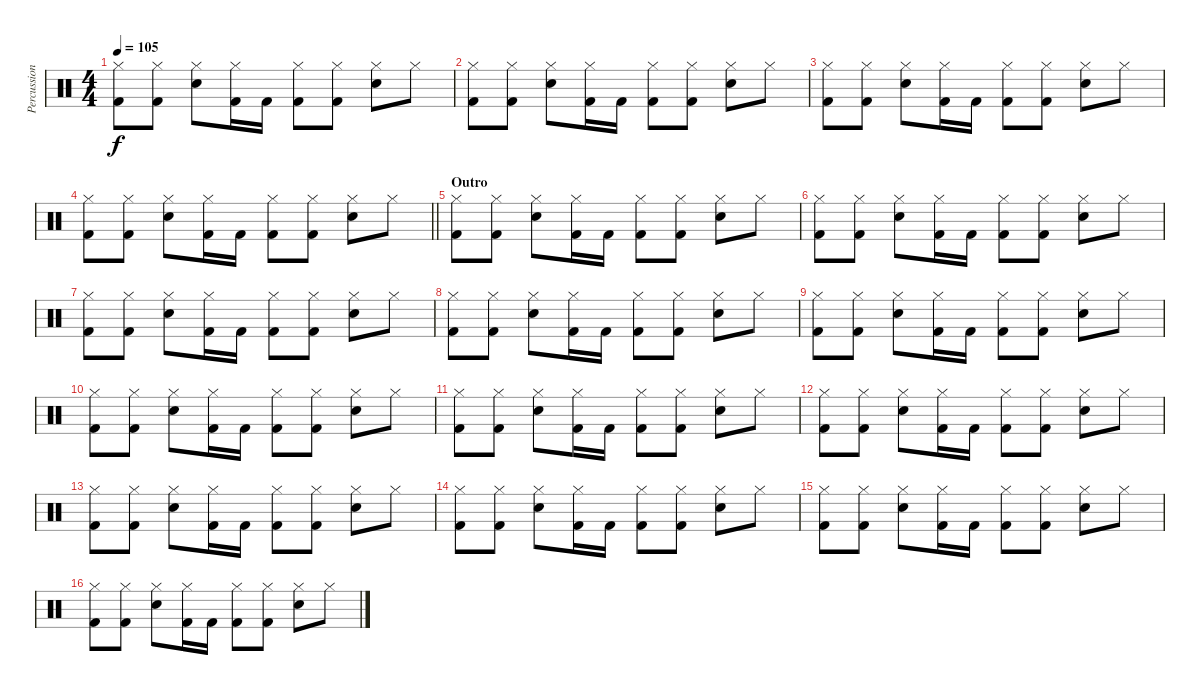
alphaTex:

\track ("Percussion" "Percussion") {instrument percussion}
\staff {score}
\articulation defaults
\ts (4 4)
\tempo 105
\clef neutral
\ks c
("Hi-Hat (closed)" "Kick (hit) 2").8{dy f} ("Hi-Hat (closed)" "Kick (hit) 2").8 ("Hi-Hat (closed)" "Electric Snare (hit)").8 ("Hi-Hat (closed)" "Kick (hit) 2").16 "Kick (hit) 2".16 ("Hi-Hat (closed)" "Kick (hit) 2").8 ("Hi-Hat (closed)" "Kick (hit) 2").8 ("Hi-Hat (closed)" "Electric Snare (hit)").8 "Hi-Hat (closed)".8 |
("Hi-Hat (closed)" "Kick (hit) 2").8 ("Hi-Hat (closed)" "Kick (hit) 2").8 ("Hi-Hat (closed)" "Electric Snare (hit)").8 ("Hi-Hat (closed)" "Kick (hit) 2").16 "Kick (hit) 2".16 ("Hi-Hat (closed)" "Kick (hit) 2").8 ("Hi-Hat (closed)" "Kick (hit) 2").8 ("Hi-Hat (closed)" "Electric Snare (hit)").8 "Hi-Hat (closed)".8 |
("Hi-Hat (closed)" "Kick (hit) 2").8 ("Hi-Hat (closed)" "Kick (hit) 2").8 ("Hi-Hat (closed)" "Electric Snare (hit)").8 ("Hi-Hat (closed)" "Kick (hit) 2").16 "Kick (hit) 2".16 ("Hi-Hat (closed)" "Kick (hit) 2").8 ("Hi-Hat (closed)" "Kick (hit) 2").8 ("Hi-Hat (closed)" "Electric Snare (hit)").8 "Hi-Hat (closed)".8 |
\barLineRight lightlight
("Hi-Hat (closed)" "Kick (hit) 2").8 ("Hi-Hat (closed)" "Kick (hit) 2").8 ("Hi-Hat (closed)" "Electric Snare (hit)").8 ("Hi-Hat (closed)" "Kick (hit) 2").16 "Kick (hit) 2".16 ("Hi-Hat (closed)" "Kick (hit) 2").8 ("Hi-Hat (closed)" "Kick (hit) 2").8 ("Hi-Hat (closed)" "Electric Snare (hit)").8 "Hi-Hat (closed)".8 |
\section ("" "Outro")
("Hi-Hat (closed)" "Kick (hit) 2").8 ("Hi-Hat (closed)" "Kick (hit) 2").8 ("Hi-Hat (closed)" "Electric Snare (hit)").8 ("Hi-Hat (closed)" "Kick (hit) 2").16 "Kick (hit) 2".16 ("Hi-Hat (closed)" "Kick (hit) 2").8 ("Hi-Hat (closed)" "Kick (hit) 2").8 ("Hi-Hat (closed)" "Electric Snare (hit)").8 "Hi-Hat (closed)".8 |
("Hi-Hat (closed)" "Kick (hit) 2").8 ("Hi-Hat (closed)" "Kick (hit) 2").8 ("Hi-Hat (closed)" "Electric Snare (hit)").8 ("Hi-Hat (closed)" "Kick (hit) 2").16 "Kick (hit) 2".16 ("Hi-Hat (closed)" "Kick (hit) 2").8 ("Hi-Hat (closed)" "Kick (hit) 2").8 ("Hi-Hat (closed)" "Electric Snare (hit)").8 "Hi-Hat (closed)".8 |
("Hi-Hat (closed)" "Kick (hit) 2").8 ("Hi-Hat (closed)" "Kick (hit) 2").8 ("Hi-Hat (closed)" "Electric Snare (hit)").8 ("Hi-Hat (closed)" "Kick (hit) 2").16 "Kick (hit) 2".16 ("Hi-Hat (closed)" "Kick (hit) 2").8 ("Hi-Hat (closed)" "Kick (hit) 2").8 ("Hi-Hat (closed)" "Electric Snare (hit)").8 "Hi-Hat (closed)".8 |
("Hi-Hat (closed)" "Kick (hit) 2").8 ("Hi-Hat (closed)" "Kick (hit) 2").8 ("Hi-Hat (closed)" "Electric Snare (hit)").8 ("Hi-Hat (closed)" "Kick (hit) 2").16 "Kick (hit) 2".16 ("Hi-Hat (closed)" "Kick (hit) 2").8 ("Hi-Hat (closed)" "Kick (hit) 2").8 ("Hi-Hat (closed)" "Electric Snare (hit)").8 "Hi-Hat (closed)".8 |
("Hi-Hat (closed)" "Kick (hit) 2").8 ("Hi-Hat (closed)" "Kick (hit) 2").8 ("Hi-Hat (closed)" "Electric Snare (hit)").8 ("Hi-Hat (closed)" "Kick (hit) 2").16 "Kick (hit) 2".16 ("Hi-Hat (closed)" "Kick (hit) 2").8 ("Hi-Hat (closed)" "Kick (hit) 2").8 ("Hi-Hat (closed)" "Electric Snare (hit)").8 "Hi-Hat (closed)".8 |
("Hi-Hat (closed)" "Kick (hit) 2").8 ("Hi-Hat (closed)" "Kick (hit) 2").8 ("Hi-Hat (closed)" "Electric Snare (hit)").8 ("Hi-Hat (closed)" "Kick (hit) 2").16 "Kick (hit) 2".16 ("Hi-Hat (closed)" "Kick (hit) 2").8 ("Hi-Hat (closed)" "Kick (hit) 2").8 ("Hi-Hat (closed)" "Electric Snare (hit)").8 "Hi-Hat (closed)".8 |
("Hi-Hat (closed)" "Kick (hit) 2").8 ("Hi-Hat (closed)" "Kick (hit) 2").8 ("Hi-Hat (closed)" "Electric Snare (hit)").8 ("Hi-Hat (closed)" "Kick (hit) 2").16 "Kick (hit) 2".16 ("Hi-Hat (closed)" "Kick (hit) 2").8 ("Hi-Hat (closed)" "Kick (hit) 2").8 ("Hi-Hat (closed)" "Electric Snare (hit)").8 "Hi-Hat (closed)".8 |
("Hi-Hat (closed)" "Kick (hit) 2").8 ("Hi-Hat (closed)" "Kick (hit) 2").8 ("Hi-Hat (closed)" "Electric Snare (hit)").8 ("Hi-Hat (closed)" "Kick (hit) 2").16 "Kick (hit) 2".16 ("Hi-Hat (closed)" "Kick (hit) 2").8 ("Hi-Hat (closed)" "Kick (hit) 2").8 ("Hi-Hat (closed)" "Electric Snare (hit)").8 "Hi-Hat (closed)".8 |
("Hi-Hat (closed)" "Kick (hit) 2").8 ("Hi-Hat (closed)" "Kick (hit) 2").8 ("Hi-Hat (closed)" "Electric Snare (hit)").8 ("Hi-Hat (closed)" "Kick (hit) 2").16 "Kick (hit) 2".16 ("Hi-Hat (closed)" "Kick (hit) 2").8 ("Hi-Hat (closed)" "Kick (hit) 2").8 ("Hi-Hat (closed)" "Electric Snare (hit)").8 "Hi-Hat (closed)".8 |
("Hi-Hat (closed)" "Kick (hit) 2").8 ("Hi-Hat (closed)" "Kick (hit) 2").8 ("Hi-Hat (closed)" "Electric Snare (hit)").8 ("Hi-Hat (closed)" "Kick (hit) 2").16 "Kick (hit) 2".16 ("Hi-Hat (closed)" "Kick (hit) 2").8 ("Hi-Hat (closed)" "Kick (hit) 2").8 ("Hi-Hat (closed)" "Electric Snare (hit)").8 "Hi-Hat (closed)".8 |
("Hi-Hat (closed)" "Kick (hit) 2").8 ("Hi-Hat (closed)" "Kick (hit) 2").8 ("Hi-Hat (closed)" "Electric Snare (hit)").8 ("Hi-Hat (closed)" "Kick (hit) 2").16 "Kick (hit) 2".16 ("Hi-Hat (closed)" "Kick (hit) 2").8 ("Hi-Hat (closed)" "Kick (hit) 2").8 ("Hi-Hat (closed)" "Electric Snare (hit)").8 "Hi-Hat (closed)".8 |
("Hi-Hat (closed)" "Kick (hit) 2").8 ("Hi-Hat (closed)" "Kick (hit) 2").8 ("Hi-Hat (closed)" "Electric Snare (hit)").8 ("Hi-Hat (closed)" "Kick (hit) 2").16 "Kick (hit) 2".16 ("Hi-Hat (closed)" "Kick (hit) 2").8 ("Hi-Hat (closed)" "Kick (hit) 2").8 ("Hi-Hat (closed)" "Electric Snare (hit)").8 "Hi-Hat (closed)".8
